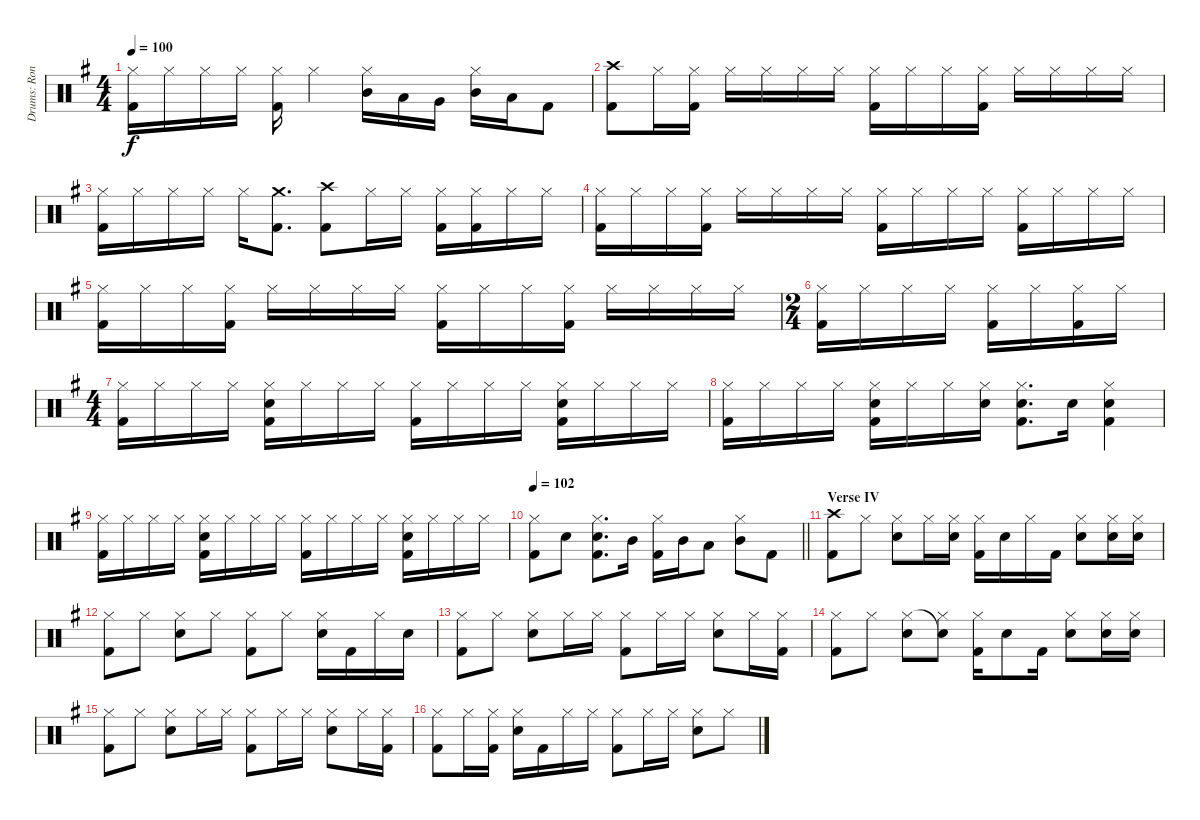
\track ("Drums: Ronnie" "Drums: Ron") {instrument percussion}
\staff {score}
\articulation defaults
\ts (4 4)
\tempo 100
\clef neutral
\ks g
("Hi-Hat (closed)" "Kick (hit) 2").16{dy f} "Hi-Hat (closed)".16 "Hi-Hat (closed)".16 "Hi-Hat (closed)".16 ("Hi-Hat (closed)" "Kick (hit) 2").16 "Hi-Hat (closed)".4 ("Hi-Hat (closed)" "Mid Tom (hit)").16 "Low Tom (hit)".16 "Very Low Tom (hit)".16 ("Hi-Hat (closed)" "Mid Tom (hit)").16 "Low Tom (hit)".16 "Kick (hit) 2".8 |
("Crash high (hit)" "Kick (hit) 2").8 "Hi-Hat (closed)".16 ("Hi-Hat (closed)" "Kick (hit) 2").16 "Hi-Hat (closed)".16 "Hi-Hat (closed)".16 "Hi-Hat (closed)".16 "Hi-Hat (closed)".16 ("Hi-Hat (closed)" "Kick (hit) 2").16 "Hi-Hat (closed)".16 "Hi-Hat (closed)".16 ("Hi-Hat (closed)" "Kick (hit) 2").16 "Hi-Hat (closed)".16 "Hi-Hat (closed)".16 "Hi-Hat (closed)".16 "Hi-Hat (closed)".16 |
("Hi-Hat (closed)" "Kick (hit) 2").16 "Hi-Hat (closed)".16 "Hi-Hat (closed)".16 "Hi-Hat (closed)".16 "Hi-Hat (closed)".16 ("Crash medium (hit)" "Kick (hit) 2").8{d} ("Crash high (hit)" "Kick (hit) 2").8 "Hi-Hat (closed)".16 "Hi-Hat (closed)".16 ("Hi-Hat (closed)" "Kick (hit) 2").16 ("Hi-Hat (closed)" "Kick (hit) 2").16 "Hi-Hat (closed)".16 "Hi-Hat (closed)".16 |
("Hi-Hat (closed)" "Kick (hit) 2").16 "Hi-Hat (closed)".16 "Hi-Hat (closed)".16 ("Hi-Hat (closed)" "Kick (hit) 2").16 "Hi-Hat (closed)".16 "Hi-Hat (closed)".16 "Hi-Hat (closed)".16 "Hi-Hat (closed)".16 ("Hi-Hat (closed)" "Kick (hit) 2").16 "Hi-Hat (closed)".16 "Hi-Hat (closed)".16 "Hi-Hat (closed)".16 ("Hi-Hat (closed)" "Kick (hit) 2").16 "Hi-Hat (closed)".16 "Hi-Hat (closed)".16 "Hi-Hat (closed)".16 |
("Hi-Hat (closed)" "Kick (hit) 2").16 "Hi-Hat (closed)".16 "Hi-Hat (closed)".16 ("Hi-Hat (closed)" "Kick (hit) 2").16 "Hi-Hat (closed)".16 "Hi-Hat (closed)".16 "Hi-Hat (closed)".16 "Hi-Hat (closed)".16 ("Hi-Hat (closed)" "Kick (hit) 2").16 "Hi-Hat (closed)".16 "Hi-Hat (closed)".16 ("Hi-Hat (closed)" "Kick (hit) 2").16 "Hi-Hat (closed)".16 "Hi-Hat (closed)".16 "Hi-Hat (closed)".16 "Hi-Hat (closed)".16 |
\ts (2 4)
("Hi-Hat (closed)" "Kick (hit) 2").16 "Hi-Hat (closed)".16 "Hi-Hat (closed)".16 "Hi-Hat (closed)".16 ("Hi-Hat (closed)" "Kick (hit) 2").16 "Hi-Hat (closed)".16 ("Hi-Hat (closed)" "Kick (hit) 2").16 "Hi-Hat (closed)".16 |
\ts (4 4)
("Hi-Hat (closed)" "Kick (hit) 2").16 "Hi-Hat (closed)".16 "Hi-Hat (closed)".16 "Hi-Hat (closed)".16 ("Hi-Hat (closed)" "Electric Snare (hit)" "Kick (hit) 2").16 "Hi-Hat (closed)".16 "Hi-Hat (closed)".16 "Hi-Hat (closed)".16 ("Hi-Hat (closed)" "Kick (hit) 2").16 "Hi-Hat (closed)".16 "Hi-Hat (closed)".16 "Hi-Hat (closed)".16 ("Hi-Hat (closed)" "Electric Snare (hit)" "Kick (hit) 2").16 "Hi-Hat (closed)".16 "Hi-Hat (closed)".16 "Hi-Hat (closed)".16 |
("Hi-Hat (closed)" "Kick (hit) 2").16 "Hi-Hat (closed)".16 "Hi-Hat (closed)".16 "Hi-Hat (closed)".16 ("Hi-Hat (closed)" "Electric Snare (hit)" "Kick (hit) 2").16 "Hi-Hat (closed)".16 "Hi-Hat (closed)".16 ("Hi-Hat (closed)" "Electric Snare (hit)").16 ("Hi-Hat (closed)" "Electric Snare (hit)" "Kick (hit) 2").8{d} "Electric Snare (hit)".16 ("Hi-Hat (closed)" "Electric Snare (hit)" "Kick (hit) 2").4 |
("Hi-Hat (closed)" "Kick (hit) 2").16 "Hi-Hat (closed)".16 "Hi-Hat (closed)".16 "Hi-Hat (closed)".16 ("Hi-Hat (closed)" "Electric Snare (hit)" "Kick (hit) 2").16 "Hi-Hat (closed)".16 "Hi-Hat (closed)".16 "Hi-Hat (closed)".16 ("Hi-Hat (closed)" "Kick (hit) 2").16 "Hi-Hat (closed)".16 "Hi-Hat (closed)".16 "Hi-Hat (closed)".16 ("Hi-Hat (closed)" "Electric Snare (hit)" "Kick (hit) 2").16 "Hi-Hat (closed)".16 "Hi-Hat (closed)".16 "Hi-Hat (closed)".16 |
\tempo 102
\barLineRight lightlight
("Hi-Hat (closed)" "Kick (hit) 2").8 "Electric Snare (hit)".8 ("Hi-Hat (closed)" "Electric Snare (hit)" "Kick (hit) 2").8{d} "Mid Tom (hit)".16 ("Hi-Hat (closed)" "Kick (hit) 2").16 "Mid Tom (hit)".16 "Low Tom (hit)".8 ("Hi-Hat (closed)" "Mid Tom (hit)").8 "Kick (hit) 2".8 |
\section ("" "Verse IV")
("Crash high (hit)" "Kick (hit) 2").8 "Hi-Hat (closed)".8 ("Hi-Hat (closed)" "Electric Snare (hit)").8 "Hi-Hat (closed)".16 ("Hi-Hat (closed)" "Electric Snare (hit)").16 ("Hi-Hat (closed)" "Kick (hit) 2").16 "Electric Snare (hit)".16 "Hi-Hat (closed)".16 "Kick (hit) 2".16 ("Hi-Hat (closed)" "Electric Snare (hit)").8 ("Hi-Hat (closed)" "Electric Snare (hit)").16 ("Hi-Hat (closed)" "Electric Snare (hit)").16 |
("Hi-Hat (closed)" "Kick (hit) 2").8 "Hi-Hat (closed)".8 ("Hi-Hat (closed)" "Electric Snare (hit)").8 "Hi-Hat (closed)".8 ("Hi-Hat (closed)" "Kick (hit) 2").8 "Hi-Hat (closed)".8 ("Hi-Hat (closed)" "Electric Snare (hit)").16 "Kick (hit) 2".16 "Hi-Hat (closed)".16 "Electric Snare (hit)".16 |
("Hi-Hat (closed)" "Kick (hit) 2").8 "Hi-Hat (closed)".8 ("Hi-Hat (closed)" "Electric Snare (hit)").8 "Hi-Hat (closed)".16 "Hi-Hat (closed)".16 ("Hi-Hat (closed)" "Kick (hit) 2").8 "Hi-Hat (closed)".16 "Hi-Hat (closed)".16 ("Hi-Hat (closed)" "Electric Snare (hit)").8 "Hi-Hat (closed)".16 ("Hi-Hat (closed)" "Kick (hit) 2").16 |
("Hi-Hat (closed)" "Kick (hit) 2").8 "Hi-Hat (closed)".8 ("Hi-Hat (closed)" "Electric Snare (hit)").8 ("Snare (hit)"{t} "Hi-Hat (closed)").8 ("Hi-Hat (closed)" "Kick (hit) 2").16 "Electric Snare (hit)".8 "Kick (hit) 2".16 ("Hi-Hat (closed)" "Electric Snare (hit)").8 ("Hi-Hat (closed)" "Electric Snare (hit)").16 ("Hi-Hat (closed)" "Electric Snare (hit)").16 |
("Hi-Hat (closed)" "Kick (hit) 2").8 "Hi-Hat (closed)".8 ("Hi-Hat (closed)" "Electric Snare (hit)").8 "Hi-Hat (closed)".16 "Hi-Hat (closed)".16 ("Hi-Hat (closed)" "Kick (hit) 2").8 "Hi-Hat (closed)".16 "Hi-Hat (closed)".16 ("Hi-Hat (closed)" "Electric Snare (hit)").8 "Hi-Hat (closed)".16 ("Hi-Hat (closed)" "Kick (hit) 2").16 |
("Hi-Hat (closed)" "Kick (hit) 2").8 "Hi-Hat (closed)".16 ("Hi-Hat (closed)" "Kick (hit) 2").16 ("Hi-Hat (closed)" "Electric Snare (hit)").16 "Kick (hit) 2".16 "Hi-Hat (closed)".16 "Hi-Hat (closed)".16 ("Hi-Hat (closed)" "Kick (hit) 2").8 "Hi-Hat (closed)".16 "Hi-Hat (closed)".16 ("Hi-Hat (closed)" "Electric Snare (hit)").8 "Hi-Hat (closed)".8
